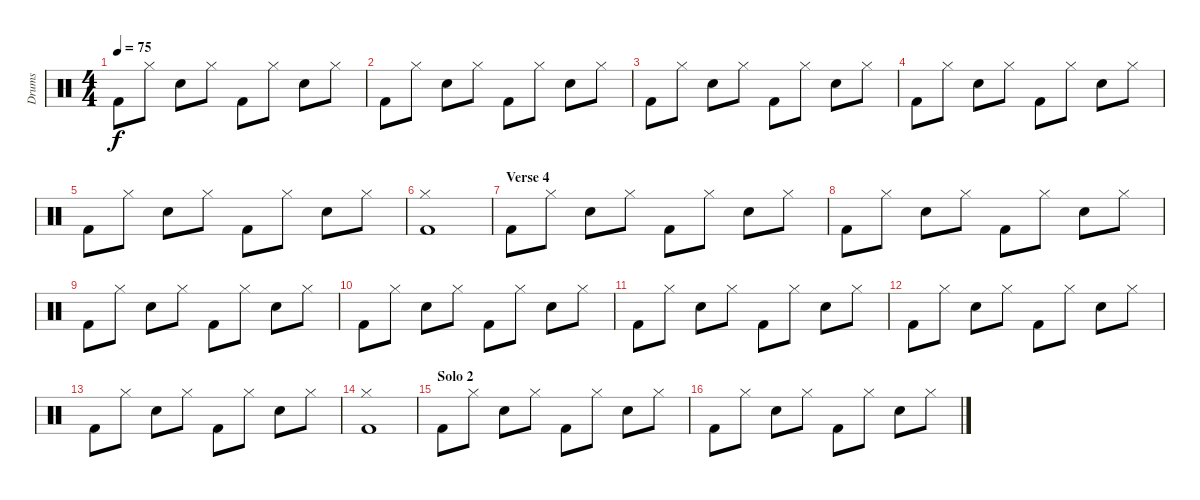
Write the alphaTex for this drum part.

\track ("Drums" "Drums") {instrument percussion}
\staff {score}
\articulation defaults
\ts (4 4)
\tempo 75
\clef neutral
\ks c "Kick (hit) 2".8{dy f} "Hi-Hat (closed)".8 "Snare (hit) 2".8 "Hi-Hat (closed)".8 "Kick (hit) 2".8 "Hi-Hat (closed)".8 "Snare (hit) 2".8 "Hi-Hat (closed)".8
|
"Kick (hit) 2".8 "Hi-Hat (closed)".8 "Snare (hit) 2".8 "Hi-Hat (closed)".8 "Kick (hit) 2".8 "Hi-Hat (closed)".8 "Snare (hit) 2".8 "Hi-Hat (closed)".8 |
"Kick (hit) 2".8 "Hi-Hat (closed)".8 "Snare (hit) 2".8 "Hi-Hat (closed)".8 "Kick (hit) 2".8 "Hi-Hat (closed)".8 "Snare (hit) 2".8 "Hi-Hat (closed)".8 |
"Kick (hit) 2".8 "Hi-Hat (closed)".8 "Snare (hit) 2".8 "Hi-Hat (closed)".8 "Kick (hit) 2".8 "Hi-Hat (closed)".8 "Snare (hit) 2".8 "Hi-Hat (closed)".8 |
"Kick (hit) 2".8 "Hi-Hat (closed)".8 "Snare (hit) 2".8 "Hi-Hat (closed)".8 "Kick (hit) 2".8 "Hi-Hat (closed)".8 "Snare (hit) 2".8 "Hi-Hat (closed)".8 |
("Kick (hit) 2" "Hi-Hat (closed)").1 |
\section ("" "Verse 4")
"Kick (hit) 2".8 "Hi-Hat (closed)".8 "Snare (hit) 2".8 "Hi-Hat (closed)".8 "Kick (hit) 2".8 "Hi-Hat (closed)".8 "Snare (hit) 2".8 "Hi-Hat (closed)".8 |
"Kick (hit) 2".8 "Hi-Hat (closed)".8 "Snare (hit) 2".8 "Hi-Hat (closed)".8 "Kick (hit) 2".8 "Hi-Hat (closed)".8 "Snare (hit) 2".8 "Hi-Hat (closed)".8 |
"Kick (hit) 2".8 "Hi-Hat (closed)".8 "Snare (hit) 2".8 "Hi-Hat (closed)".8 "Kick (hit) 2".8 "Hi-Hat (closed)".8 "Snare (hit) 2".8 "Hi-Hat (closed)".8 |
"Kick (hit) 2".8 "Hi-Hat (closed)".8 "Snare (hit) 2".8 "Hi-Hat (closed)".8 "Kick (hit) 2".8 "Hi-Hat (closed)".8 "Snare (hit) 2".8 "Hi-Hat (closed)".8 |
"Kick (hit) 2".8 "Hi-Hat (closed)".8 "Snare (hit) 2".8 "Hi-Hat (closed)".8 "Kick (hit) 2".8 "Hi-Hat (closed)".8 "Snare (hit) 2".8 "Hi-Hat (closed)".8 |
"Kick (hit) 2".8 "Hi-Hat (closed)".8 "Snare (hit) 2".8 "Hi-Hat (closed)".8 "Kick (hit) 2".8 "Hi-Hat (closed)".8 "Snare (hit) 2".8 "Hi-Hat (closed)".8 |
"Kick (hit) 2".8 "Hi-Hat (closed)".8 "Snare (hit) 2".8 "Hi-Hat (closed)".8 "Kick (hit) 2".8 "Hi-Hat (closed)".8 "Snare (hit) 2".8 "Hi-Hat (closed)".8 |
("Kick (hit) 2" "Hi-Hat (closed)").1 |
\section ("" "Solo 2")
"Kick (hit) 2".8 "Hi-Hat (closed)".8 "Snare (hit) 2".8 "Hi-Hat (closed)".8 "Kick (hit) 2".8 "Hi-Hat (closed)".8 "Snare (hit) 2".8 "Hi-Hat (closed)".8 |
"Kick (hit) 2".8 "Hi-Hat (closed)".8 "Snare (hit) 2".8 "Hi-Hat (closed)".8 "Kick (hit) 2".8 "Hi-Hat (closed)".8 "Snare (hit) 2".8 "Hi-Hat (closed)".8
